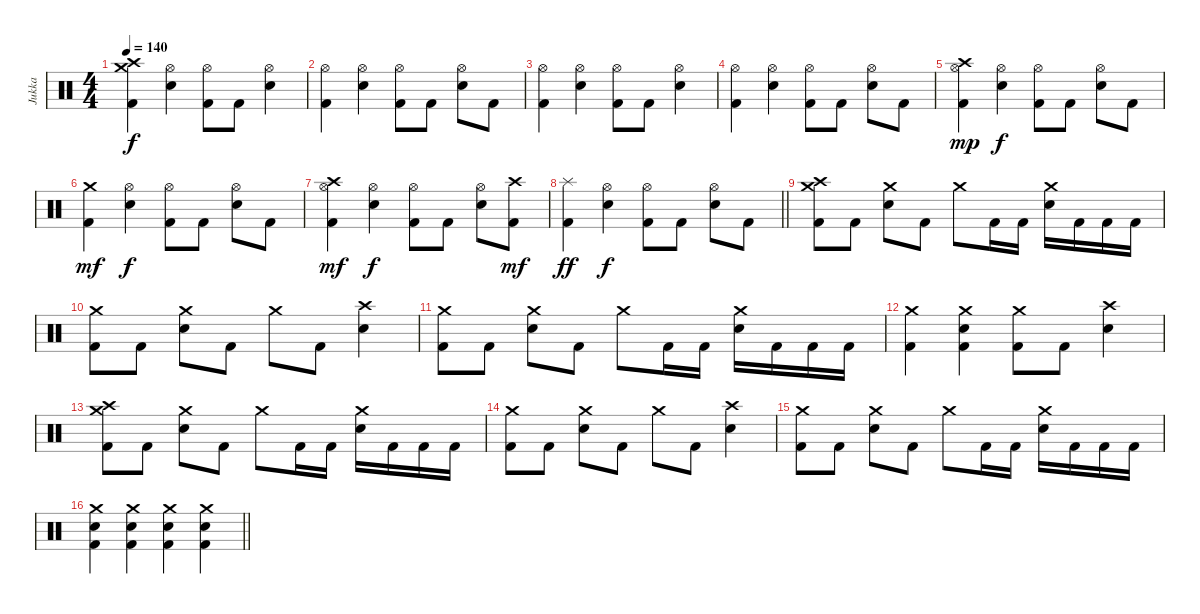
\track ("Jukka" "Jukka") {instrument percussion}
\staff {score}
\articulation defaults
\ts (4 4)
\tempo 140
\clef neutral
\ks aminor
("Crash medium (hit)" "Crash high (hit)" "Kick (hit) 2").4{dy f} ("Hi-Hat (open)" "Electric Snare (hit)").4 ("Hi-Hat (open)" "Kick (hit) 2").8 "Kick (hit) 2".8 ("Hi-Hat (open)" "Electric Snare (hit)").4 |
("Hi-Hat (open)" "Kick (hit) 2").4 ("Hi-Hat (open)" "Electric Snare (hit)").4 ("Hi-Hat (open)" "Kick (hit) 2").8 "Kick (hit) 2".8 ("Hi-Hat (open)" "Electric Snare (hit)").8 "Kick (hit) 2".8 |
("Hi-Hat (open)" "Kick (hit) 2").4 ("Hi-Hat (open)" "Electric Snare (hit)").4 ("Hi-Hat (open)" "Kick (hit) 2").8 "Kick (hit) 2".8 ("Hi-Hat (open)" "Electric Snare (hit)").4 |
("Hi-Hat (open)" "Kick (hit) 2").4 ("Hi-Hat (open)" "Electric Snare (hit)").4 ("Hi-Hat (open)" "Kick (hit) 2").8 "Kick (hit) 2".8 ("Hi-Hat (open)" "Electric Snare (hit)").8 "Kick (hit) 2".8 |
("Crash high (hit)" "Hi-Hat (open)" "Kick (hit) 2").4{dy mp} ("Hi-Hat (open)" "Electric Snare (hit)").4{dy f} ("Hi-Hat (open)" "Kick (hit) 2").8 "Kick (hit) 2".8 ("Hi-Hat (open)" "Electric Snare (hit)").8 "Kick (hit) 2".8 |
("Crash medium (hit)" "Kick (hit) 2").4{dy mf} ("Hi-Hat (open)" "Electric Snare (hit)").4{dy f} ("Hi-Hat (open)" "Kick (hit) 2").8 "Kick (hit) 2".8 ("Hi-Hat (open)" "Electric Snare (hit)").8 "Kick (hit) 2".8 |
("Crash high (hit)" "Hi-Hat (open)" "Kick (hit) 2").4{dy mf} ("Hi-Hat (open)" "Electric Snare (hit)").4{dy f} ("Hi-Hat (open)" "Kick (hit) 2").8 "Kick (hit) 2".8 ("Hi-Hat (open)" "Electric Snare (hit)").8 ("Crash high (hit)" "Kick (hit) 2").8{dy mf} |
\barLineRight lightlight
("Splash (hit)" "Kick (hit) 2").4{dy ff} ("Hi-Hat (open)" "Electric Snare (hit)").4{dy f} ("Hi-Hat (open)" "Kick (hit) 2").8 "Kick (hit) 2".8 ("Hi-Hat (open)" "Electric Snare (hit)").8 "Kick (hit) 2".8 |
\ks c
("Crash high (hit)" "Crash medium (hit)" "Kick (hit) 2").8 "Kick (hit) 2".8 ("Crash medium (hit)" "Electric Snare (hit)").8 "Kick (hit) 2".8 "Crash medium (hit)".8 "Kick (hit) 2".16 "Kick (hit) 2".16 ("Crash medium (hit)" "Electric Snare (hit)").16 "Kick (hit) 2".16 "Kick (hit) 2".16 "Kick (hit) 2".16 |
("Crash medium (hit)" "Kick (hit) 2").8 "Kick (hit) 2".8 ("Crash medium (hit)" "Electric Snare (hit)").8 "Kick (hit) 2".8 "Crash medium (hit)".8 "Kick (hit) 2".8 ("Crash high (hit)" "Electric Snare (hit)").4 |
\ks aminor
("Crash medium (hit)" "Kick (hit) 2").8 "Kick (hit) 2".8 ("Crash medium (hit)" "Electric Snare (hit)").8 "Kick (hit) 2".8 "Crash medium (hit)".8 "Kick (hit) 2".16 "Kick (hit) 2".16 ("Crash medium (hit)" "Electric Snare (hit)").16 "Kick (hit) 2".16 "Kick (hit) 2".16 "Kick (hit) 2".16 |
("Crash medium (hit)" "Kick (hit) 2").4 ("Crash medium (hit)" "Electric Snare (hit)" "Kick (hit) 2").4 ("Crash medium (hit)" "Kick (hit) 2").8 "Kick (hit) 2".8 ("Crash high (hit)" "Electric Snare (hit)").4 |
("Crash high (hit)" "Crash medium (hit)" "Kick (hit) 2").8 "Kick (hit) 2".8 ("Crash medium (hit)" "Electric Snare (hit)").8 "Kick (hit) 2".8 "Crash medium (hit)".8 "Kick (hit) 2".16 "Kick (hit) 2".16 ("Crash medium (hit)" "Electric Snare (hit)").16 "Kick (hit) 2".16 "Kick (hit) 2".16 "Kick (hit) 2".16 |
("Crash medium (hit)" "Kick (hit) 2").8 "Kick (hit) 2".8 ("Crash medium (hit)" "Electric Snare (hit)").8 "Kick (hit) 2".8 "Crash medium (hit)".8 "Kick (hit) 2".8 ("Crash high (hit)" "Electric Snare (hit)").4 |
("Crash medium (hit)" "Kick (hit) 2").8 "Kick (hit) 2".8 ("Crash medium (hit)" "Electric Snare (hit)").8 "Kick (hit) 2".8 "Crash medium (hit)".8 "Kick (hit) 2".16 "Kick (hit) 2".16 ("Crash medium (hit)" "Electric Snare (hit)").16 "Kick (hit) 2".16 "Kick (hit) 2".16 "Kick (hit) 2".16 |
\barLineRight lightlight
("Crash medium (hit)" "Electric Snare (hit)" "Kick (hit) 2").4 ("Crash medium (hit)" "Electric Snare (hit)" "Kick (hit) 2").4 ("Crash medium (hit)" "Electric Snare (hit)" "Kick (hit) 2").4 ("Crash medium (hit)" "Electric Snare (hit)" "Kick (hit) 2").4
